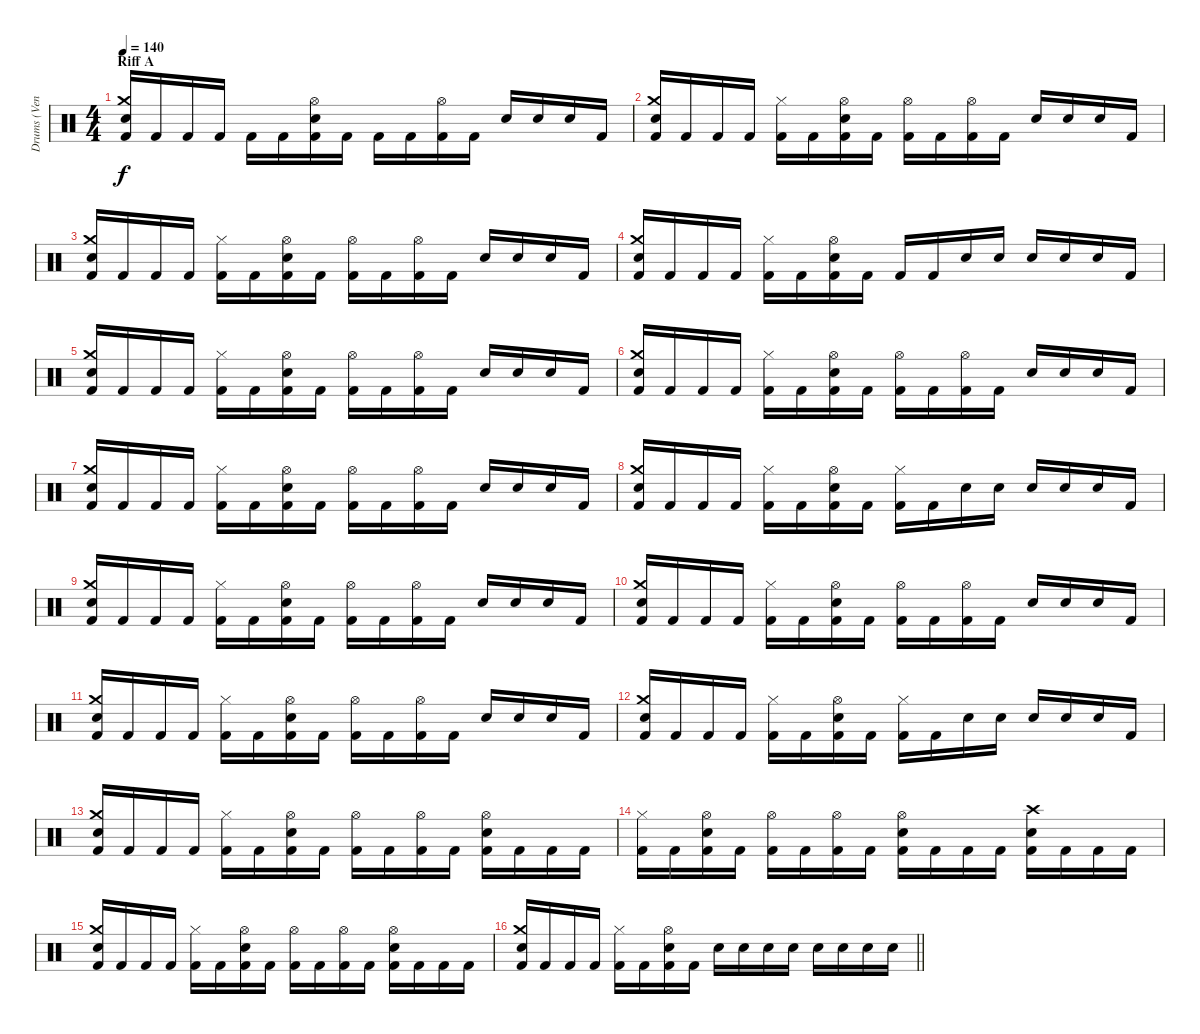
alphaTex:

\track ("Drums (Ventor)" "Drums (Ven") {instrument percussion}
\staff {score}
\articulation defaults
\ts (4 4)
\section ("" "Riff A")
\tempo 140
\clef neutral
\ks c
("Electric Snare (hit)" "Crash medium (hit)" "Kick (hit) 2").16{dy f} "Kick (hit) 2".16 "Kick (hit) 2".16 "Kick (hit) 2".16 "Kick (hit) 2".16 "Kick (hit) 2".16 ("Electric Snare (hit)" "Hi-Hat (open)" "Kick (hit) 2").16 "Kick (hit) 2".16 "Kick (hit) 2".16 "Kick (hit) 2".16 ("Hi-Hat (open)" "Kick (hit) 2").16 "Kick (hit) 2".16 "Electric Snare (hit)".16 "Electric Snare (hit)".16 "Electric Snare (hit)".16 "Kick (hit) 2".16 |
("Electric Snare (hit)" "Crash medium (hit)" "Kick (hit) 2").16 "Kick (hit) 2".16 "Kick (hit) 2".16 "Kick (hit) 2".16 ("Hi-Hat (closed)" "Kick (hit) 2").16 "Kick (hit) 2".16 ("Electric Snare (hit)" "Hi-Hat (open)" "Kick (hit) 2").16 "Kick (hit) 2".16 ("Hi-Hat (open)" "Kick (hit) 2").16 "Kick (hit) 2".16 ("Hi-Hat (open)" "Kick (hit) 2").16 "Kick (hit) 2".16 "Electric Snare (hit)".16 "Electric Snare (hit)".16 "Electric Snare (hit)".16 "Kick (hit) 2".16 |
("Electric Snare (hit)" "Crash medium (hit)" "Kick (hit) 2").16 "Kick (hit) 2".16 "Kick (hit) 2".16 "Kick (hit) 2".16 ("Hi-Hat (closed)" "Kick (hit) 2").16 "Kick (hit) 2".16 ("Electric Snare (hit)" "Hi-Hat (open)" "Kick (hit) 2").16 "Kick (hit) 2".16 ("Hi-Hat (open)" "Kick (hit) 2").16 "Kick (hit) 2".16 ("Hi-Hat (open)" "Kick (hit) 2").16 "Kick (hit) 2".16 "Electric Snare (hit)".16 "Electric Snare (hit)".16 "Electric Snare (hit)".16 "Kick (hit) 2".16 |
("Electric Snare (hit)" "Crash medium (hit)" "Kick (hit) 2").16 "Kick (hit) 2".16 "Kick (hit) 2".16 "Kick (hit) 2".16 ("Hi-Hat (closed)" "Kick (hit) 2").16 "Kick (hit) 2".16 ("Electric Snare (hit)" "Hi-Hat (open)" "Kick (hit) 2").16 "Kick (hit) 2".16 "Kick (hit) 2".16 "Kick (hit) 2".16 "Electric Snare (hit)".16 "Electric Snare (hit)".16 "Electric Snare (hit)".16 "Electric Snare (hit)".16 "Electric Snare (hit)".16 "Kick (hit) 2".16 |
("Electric Snare (hit)" "Crash medium (hit)" "Kick (hit) 2").16 "Kick (hit) 2".16 "Kick (hit) 2".16 "Kick (hit) 2".16 ("Hi-Hat (closed)" "Kick (hit) 2").16 "Kick (hit) 2".16 ("Electric Snare (hit)" "Hi-Hat (open)" "Kick (hit) 2").16 "Kick (hit) 2".16 ("Hi-Hat (open)" "Kick (hit) 2").16 "Kick (hit) 2".16 ("Hi-Hat (open)" "Kick (hit) 2").16 "Kick (hit) 2".16 "Electric Snare (hit)".16 "Electric Snare (hit)".16 "Electric Snare (hit)".16 "Kick (hit) 2".16 |
("Electric Snare (hit)" "Crash medium (hit)" "Kick (hit) 2").16 "Kick (hit) 2".16 "Kick (hit) 2".16 "Kick (hit) 2".16 ("Hi-Hat (closed)" "Kick (hit) 2").16 "Kick (hit) 2".16 ("Electric Snare (hit)" "Hi-Hat (open)" "Kick (hit) 2").16 "Kick (hit) 2".16 ("Hi-Hat (open)" "Kick (hit) 2").16 "Kick (hit) 2".16 ("Hi-Hat (open)" "Kick (hit) 2").16 "Kick (hit) 2".16 "Electric Snare (hit)".16 "Electric Snare (hit)".16 "Electric Snare (hit)".16 "Kick (hit) 2".16 |
("Electric Snare (hit)" "Crash medium (hit)" "Kick (hit) 2").16 "Kick (hit) 2".16 "Kick (hit) 2".16 "Kick (hit) 2".16 ("Hi-Hat (closed)" "Kick (hit) 2").16 "Kick (hit) 2".16 ("Electric Snare (hit)" "Hi-Hat (open)" "Kick (hit) 2").16 "Kick (hit) 2".16 ("Hi-Hat (open)" "Kick (hit) 2").16 "Kick (hit) 2".16 ("Hi-Hat (open)" "Kick (hit) 2").16 "Kick (hit) 2".16 "Electric Snare (hit)".16 "Electric Snare (hit)".16 "Electric Snare (hit)".16 "Kick (hit) 2".16 |
("Electric Snare (hit)" "Crash medium (hit)" "Kick (hit) 2").16 "Kick (hit) 2".16 "Kick (hit) 2".16 "Kick (hit) 2".16 ("Hi-Hat (closed)" "Kick (hit) 2").16 "Kick (hit) 2".16 ("Electric Snare (hit)" "Hi-Hat (open)" "Kick (hit) 2").16 "Kick (hit) 2".16 ("Hi-Hat (closed)" "Kick (hit) 2").16 "Kick (hit) 2".16 "Electric Snare (hit)".16 "Electric Snare (hit)".16 "Electric Snare (hit)".16 "Electric Snare (hit)".16 "Electric Snare (hit)".16 "Kick (hit) 2".16 |
("Electric Snare (hit)" "Crash medium (hit)" "Kick (hit) 2").16 "Kick (hit) 2".16 "Kick (hit) 2".16 "Kick (hit) 2".16 ("Hi-Hat (closed)" "Kick (hit) 2").16 "Kick (hit) 2".16 ("Electric Snare (hit)" "Hi-Hat (open)" "Kick (hit) 2").16 "Kick (hit) 2".16 ("Hi-Hat (open)" "Kick (hit) 2").16 "Kick (hit) 2".16 ("Hi-Hat (open)" "Kick (hit) 2").16 "Kick (hit) 2".16 "Electric Snare (hit)".16 "Electric Snare (hit)".16 "Electric Snare (hit)".16 "Kick (hit) 2".16 |
("Electric Snare (hit)" "Crash medium (hit)" "Kick (hit) 2").16 "Kick (hit) 2".16 "Kick (hit) 2".16 "Kick (hit) 2".16 ("Hi-Hat (closed)" "Kick (hit) 2").16 "Kick (hit) 2".16 ("Electric Snare (hit)" "Hi-Hat (open)" "Kick (hit) 2").16 "Kick (hit) 2".16 ("Hi-Hat (open)" "Kick (hit) 2").16 "Kick (hit) 2".16 ("Hi-Hat (open)" "Kick (hit) 2").16 "Kick (hit) 2".16 "Electric Snare (hit)".16 "Electric Snare (hit)".16 "Electric Snare (hit)".16 "Kick (hit) 2".16 |
("Electric Snare (hit)" "Crash medium (hit)" "Kick (hit) 2").16 "Kick (hit) 2".16 "Kick (hit) 2".16 "Kick (hit) 2".16 ("Hi-Hat (closed)" "Kick (hit) 2").16 "Kick (hit) 2".16 ("Electric Snare (hit)" "Hi-Hat (open)" "Kick (hit) 2").16 "Kick (hit) 2".16 ("Hi-Hat (open)" "Kick (hit) 2").16 "Kick (hit) 2".16 ("Hi-Hat (open)" "Kick (hit) 2").16 "Kick (hit) 2".16 "Electric Snare (hit)".16 "Electric Snare (hit)".16 "Electric Snare (hit)".16 "Kick (hit) 2".16 |
("Electric Snare (hit)" "Crash medium (hit)" "Kick (hit) 2").16 "Kick (hit) 2".16 "Kick (hit) 2".16 "Kick (hit) 2".16 ("Hi-Hat (closed)" "Kick (hit) 2").16 "Kick (hit) 2".16 ("Electric Snare (hit)" "Hi-Hat (open)" "Kick (hit) 2").16 "Kick (hit) 2".16 ("Hi-Hat (closed)" "Kick (hit) 2").16 "Kick (hit) 2".16 "Electric Snare (hit)".16 "Electric Snare (hit)".16 "Electric Snare (hit)".16 "Electric Snare (hit)".16 "Electric Snare (hit)".16 "Kick (hit) 2".16 |
("Electric Snare (hit)" "Crash medium (hit)" "Kick (hit) 2").16 "Kick (hit) 2".16 "Kick (hit) 2".16 "Kick (hit) 2".16 ("Hi-Hat (closed)" "Kick (hit) 2").16 "Kick (hit) 2".16 ("Electric Snare (hit)" "Hi-Hat (open)" "Kick (hit) 2").16 "Kick (hit) 2".16 ("Hi-Hat (open)" "Kick (hit) 2").16 "Kick (hit) 2".16 ("Hi-Hat (open)" "Kick (hit) 2").16 "Kick (hit) 2".16 ("Electric Snare (hit)" "Hi-Hat (open)" "Kick (hit) 2").16 "Kick (hit) 2".16 "Kick (hit) 2".16 "Kick (hit) 2".16 |
("Hi-Hat (closed)" "Kick (hit) 2").16 "Kick (hit) 2".16 ("Electric Snare (hit)" "Hi-Hat (open)" "Kick (hit) 2").16 "Kick (hit) 2".16 ("Hi-Hat (open)" "Kick (hit) 2").16 "Kick (hit) 2".16 ("Hi-Hat (open)" "Kick (hit) 2").16 "Kick (hit) 2".16 ("Electric Snare (hit)" "Hi-Hat (open)" "Kick (hit) 2").16 "Kick (hit) 2".16 "Kick (hit) 2".16 "Kick (hit) 2".16 ("Electric Snare (hit)" "Crash high (hit)" "Kick (hit) 2").16 "Kick (hit) 2".16 "Kick (hit) 2".16 "Kick (hit) 2".16 |
("Electric Snare (hit)" "Crash medium (hit)" "Kick (hit) 2").16 "Kick (hit) 2".16 "Kick (hit) 2".16 "Kick (hit) 2".16 ("Hi-Hat (closed)" "Kick (hit) 2").16 "Kick (hit) 2".16 ("Electric Snare (hit)" "Hi-Hat (open)" "Kick (hit) 2").16 "Kick (hit) 2".16 ("Hi-Hat (open)" "Kick (hit) 2").16 "Kick (hit) 2".16 ("Hi-Hat (open)" "Kick (hit) 2").16 "Kick (hit) 2".16 ("Electric Snare (hit)" "Hi-Hat (open)" "Kick (hit) 2").16 "Kick (hit) 2".16 "Kick (hit) 2".16 "Kick (hit) 2".16 |
\barLineRight lightlight
("Electric Snare (hit)" "Crash medium (hit)" "Kick (hit) 2").16 "Kick (hit) 2".16 "Kick (hit) 2".16 "Kick (hit) 2".16 ("Hi-Hat (closed)" "Kick (hit) 2").16 "Kick (hit) 2".16 ("Electric Snare (hit)" "Hi-Hat (open)" "Kick (hit) 2").16 "Kick (hit) 2".16 "Electric Snare (hit)".16 "Electric Snare (hit)".16 "Electric Snare (hit)".16 "Electric Snare (hit)".16 "Electric Snare (hit)".16 "Electric Snare (hit)".16 "Electric Snare (hit)".16 "Electric Snare (hit)".16
